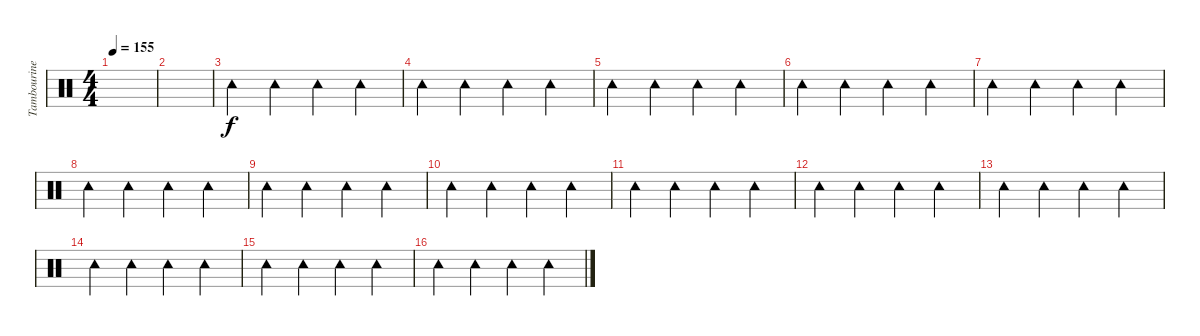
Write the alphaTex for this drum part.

\track ("Tambourine" "Tambourine") {instrument percussion}
\staff {score}
\articulation defaults
\ts (4 4)
\tempo 155
\clef neutral
\ks c
|
|
"Tambourine (hit)".4 "Tambourine (hit)".4 "Tambourine (hit)".4 "Tambourine (hit)".4 |
"Tambourine (hit)".4 "Tambourine (hit)".4 "Tambourine (hit)".4 "Tambourine (hit)".4 |
"Tambourine (hit)".4 "Tambourine (hit)".4 "Tambourine (hit)".4 "Tambourine (hit)".4 |
"Tambourine (hit)".4 "Tambourine (hit)".4 "Tambourine (hit)".4 "Tambourine (hit)".4 |
"Tambourine (hit)".4 "Tambourine (hit)".4 "Tambourine (hit)".4 "Tambourine (hit)".4 |
"Tambourine (hit)".4 "Tambourine (hit)".4 "Tambourine (hit)".4 "Tambourine (hit)".4 |
"Tambourine (hit)".4 "Tambourine (hit)".4 "Tambourine (hit)".4 "Tambourine (hit)".4 |
"Tambourine (hit)".4 "Tambourine (hit)".4 "Tambourine (hit)".4 "Tambourine (hit)".4 |
"Tambourine (hit)".4 "Tambourine (hit)".4 "Tambourine (hit)".4 "Tambourine (hit)".4 |
"Tambourine (hit)".4 "Tambourine (hit)".4 "Tambourine (hit)".4 "Tambourine (hit)".4 |
"Tambourine (hit)".4 "Tambourine (hit)".4 "Tambourine (hit)".4 "Tambourine (hit)".4 |
"Tambourine (hit)".4 "Tambourine (hit)".4 "Tambourine (hit)".4 "Tambourine (hit)".4 |
"Tambourine (hit)".4 "Tambourine (hit)".4 "Tambourine (hit)".4 "Tambourine (hit)".4 |
"Tambourine (hit)".4 "Tambourine (hit)".4 "Tambourine (hit)".4 "Tambourine (hit)".4
